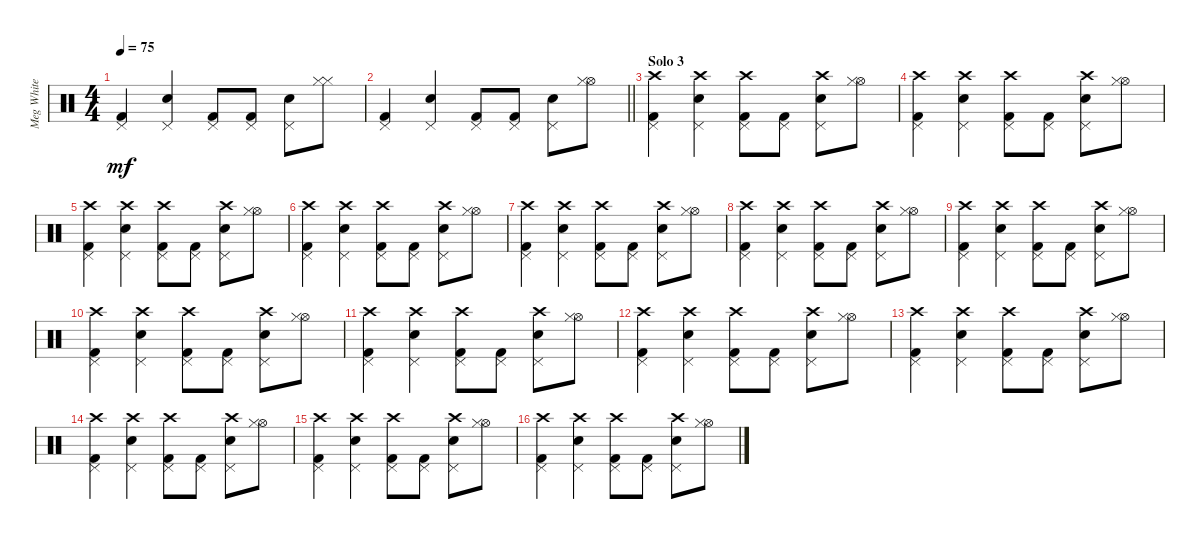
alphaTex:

\track ("Meg White" "Meg White") {instrument percussion}
\staff {score}
\articulation defaults
\ts (4 4)
\tempo 75
\clef neutral
\ks c
("Pedal Hi-Hat (hit)" "Kick (hit) 2").4{dy mf} ("Pedal Hi-Hat (hit)" "Electric Snare (hit)").4 ("Pedal Hi-Hat (hit)" "Kick (hit) 2").8 ("Pedal Hi-Hat (hit)" "Kick (hit) 2").8 ("Pedal Hi-Hat (hit)" "Electric Snare (hit)").8 ("Hi-Hat (closed)" "Hi-Hat (closed)").8 |
\barLineRight lightlight
("Pedal Hi-Hat (hit)" "Kick (hit) 2").4 ("Pedal Hi-Hat (hit)" "Electric Snare (hit)").4 ("Pedal Hi-Hat (hit)" "Kick (hit) 2").8 ("Pedal Hi-Hat (hit)" "Kick (hit) 2").8 ("Pedal Hi-Hat (hit)" "Electric Snare (hit)").8 ("Hi-Hat (open)" "Hi-Hat (closed)").8 |
\section ("" "Solo 3")
("Pedal Hi-Hat (hit)" "Kick (hit) 2" "Crash high (hit)").4 ("Pedal Hi-Hat (hit)" "Electric Snare (hit)" "Crash high (hit)").4 ("Pedal Hi-Hat (hit)" "Kick (hit) 2" "Crash high (hit)").8 ("Pedal Hi-Hat (hit)" "Kick (hit) 2").8 ("Pedal Hi-Hat (hit)" "Electric Snare (hit)" "Crash high (hit)").8 ("Hi-Hat (open)" "Hi-Hat (closed)").8 |
("Pedal Hi-Hat (hit)" "Kick (hit) 2" "Crash high (hit)").4 ("Pedal Hi-Hat (hit)" "Electric Snare (hit)" "Crash high (hit)").4 ("Pedal Hi-Hat (hit)" "Kick (hit) 2" "Crash high (hit)").8 ("Pedal Hi-Hat (hit)" "Kick (hit) 2").8 ("Pedal Hi-Hat (hit)" "Electric Snare (hit)" "Crash high (hit)").8 ("Hi-Hat (open)" "Hi-Hat (closed)").8 |
("Pedal Hi-Hat (hit)" "Kick (hit) 2" "Crash high (hit)").4 ("Pedal Hi-Hat (hit)" "Electric Snare (hit)" "Crash high (hit)").4 ("Pedal Hi-Hat (hit)" "Kick (hit) 2" "Crash high (hit)").8 ("Pedal Hi-Hat (hit)" "Kick (hit) 2").8 ("Pedal Hi-Hat (hit)" "Electric Snare (hit)" "Crash high (hit)").8 ("Hi-Hat (open)" "Hi-Hat (closed)").8 |
("Pedal Hi-Hat (hit)" "Kick (hit) 2" "Crash high (hit)").4 ("Pedal Hi-Hat (hit)" "Electric Snare (hit)" "Crash high (hit)").4 ("Pedal Hi-Hat (hit)" "Kick (hit) 2" "Crash high (hit)").8 ("Pedal Hi-Hat (hit)" "Kick (hit) 2").8 ("Pedal Hi-Hat (hit)" "Electric Snare (hit)" "Crash high (hit)").8 ("Hi-Hat (open)" "Hi-Hat (closed)").8 |
("Pedal Hi-Hat (hit)" "Kick (hit) 2" "Crash high (hit)").4 ("Pedal Hi-Hat (hit)" "Electric Snare (hit)" "Crash high (hit)").4 ("Pedal Hi-Hat (hit)" "Kick (hit) 2" "Crash high (hit)").8 ("Pedal Hi-Hat (hit)" "Kick (hit) 2").8 ("Pedal Hi-Hat (hit)" "Electric Snare (hit)" "Crash high (hit)").8 ("Hi-Hat (open)" "Hi-Hat (closed)").8 |
("Pedal Hi-Hat (hit)" "Kick (hit) 2" "Crash high (hit)").4 ("Pedal Hi-Hat (hit)" "Electric Snare (hit)" "Crash high (hit)").4 ("Pedal Hi-Hat (hit)" "Kick (hit) 2" "Crash high (hit)").8 ("Pedal Hi-Hat (hit)" "Kick (hit) 2").8 ("Pedal Hi-Hat (hit)" "Electric Snare (hit)" "Crash high (hit)").8 ("Hi-Hat (open)" "Hi-Hat (closed)").8 |
("Pedal Hi-Hat (hit)" "Kick (hit) 2" "Crash high (hit)").4 ("Pedal Hi-Hat (hit)" "Electric Snare (hit)" "Crash high (hit)").4 ("Pedal Hi-Hat (hit)" "Kick (hit) 2" "Crash high (hit)").8 ("Pedal Hi-Hat (hit)" "Kick (hit) 2").8 ("Pedal Hi-Hat (hit)" "Electric Snare (hit)" "Crash high (hit)").8 ("Hi-Hat (open)" "Hi-Hat (closed)").8 |
("Pedal Hi-Hat (hit)" "Kick (hit) 2" "Crash high (hit)").4 ("Pedal Hi-Hat (hit)" "Electric Snare (hit)" "Crash high (hit)").4 ("Pedal Hi-Hat (hit)" "Kick (hit) 2" "Crash high (hit)").8 ("Pedal Hi-Hat (hit)" "Kick (hit) 2").8 ("Pedal Hi-Hat (hit)" "Electric Snare (hit)" "Crash high (hit)").8 ("Hi-Hat (open)" "Hi-Hat (closed)").8 |
("Pedal Hi-Hat (hit)" "Kick (hit) 2" "Crash high (hit)").4 ("Pedal Hi-Hat (hit)" "Electric Snare (hit)" "Crash high (hit)").4 ("Pedal Hi-Hat (hit)" "Kick (hit) 2" "Crash high (hit)").8 ("Pedal Hi-Hat (hit)" "Kick (hit) 2").8 ("Pedal Hi-Hat (hit)" "Electric Snare (hit)" "Crash high (hit)").8 ("Hi-Hat (open)" "Hi-Hat (closed)").8 |
("Pedal Hi-Hat (hit)" "Kick (hit) 2" "Crash high (hit)").4 ("Pedal Hi-Hat (hit)" "Electric Snare (hit)" "Crash high (hit)").4 ("Pedal Hi-Hat (hit)" "Kick (hit) 2" "Crash high (hit)").8 ("Pedal Hi-Hat (hit)" "Kick (hit) 2").8 ("Pedal Hi-Hat (hit)" "Electric Snare (hit)" "Crash high (hit)").8 ("Hi-Hat (open)" "Hi-Hat (closed)").8 |
("Pedal Hi-Hat (hit)" "Kick (hit) 2" "Crash high (hit)").4 ("Pedal Hi-Hat (hit)" "Electric Snare (hit)" "Crash high (hit)").4 ("Pedal Hi-Hat (hit)" "Kick (hit) 2" "Crash high (hit)").8 ("Pedal Hi-Hat (hit)" "Kick (hit) 2").8 ("Pedal Hi-Hat (hit)" "Electric Snare (hit)" "Crash high (hit)").8 ("Hi-Hat (open)" "Hi-Hat (closed)").8 |
("Pedal Hi-Hat (hit)" "Kick (hit) 2" "Crash high (hit)").4 ("Pedal Hi-Hat (hit)" "Electric Snare (hit)" "Crash high (hit)").4 ("Pedal Hi-Hat (hit)" "Kick (hit) 2" "Crash high (hit)").8 ("Pedal Hi-Hat (hit)" "Kick (hit) 2").8 ("Pedal Hi-Hat (hit)" "Electric Snare (hit)" "Crash high (hit)").8 ("Hi-Hat (open)" "Hi-Hat (closed)").8 |
("Pedal Hi-Hat (hit)" "Kick (hit) 2" "Crash high (hit)").4 ("Pedal Hi-Hat (hit)" "Electric Snare (hit)" "Crash high (hit)").4 ("Pedal Hi-Hat (hit)" "Kick (hit) 2" "Crash high (hit)").8 ("Pedal Hi-Hat (hit)" "Kick (hit) 2").8 ("Pedal Hi-Hat (hit)" "Electric Snare (hit)" "Crash high (hit)").8 ("Hi-Hat (open)" "Hi-Hat (closed)").8 |
("Pedal Hi-Hat (hit)" "Kick (hit) 2" "Crash high (hit)").4 ("Pedal Hi-Hat (hit)" "Electric Snare (hit)" "Crash high (hit)").4 ("Pedal Hi-Hat (hit)" "Kick (hit) 2" "Crash high (hit)").8 ("Pedal Hi-Hat (hit)" "Kick (hit) 2").8 ("Pedal Hi-Hat (hit)" "Electric Snare (hit)" "Crash high (hit)").8 ("Hi-Hat (open)" "Hi-Hat (closed)").8
